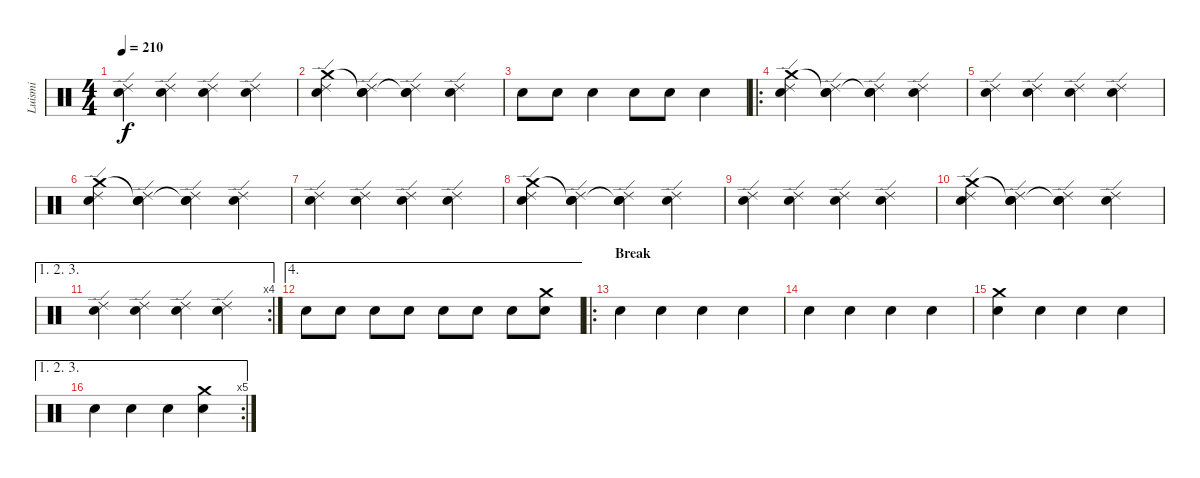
\track ("Luismi" "Luismi") {instrument percussion}
\staff {score}
\articulation defaults
\ts (4 4)
\tempo 210
\clef neutral
\ks c
("Snare (hit) 2" "Ride (edge) 2").4{dy f} ("Electric Snare (hit)" "Ride (edge) 2").4 ("Snare (hit) 2" "Ride (edge) 2").4 ("Electric Snare (hit)" "Ride (edge) 2").4 |
("Snare (hit) 2" "Ride (edge) 2" "Crash medium (hit)").4 ("Electric Snare (hit)" "Ride (edge) 2" "Snare (hit)"{t}).4 ("Snare (hit) 2" "Ride (edge) 2" "Snare (hit)"{t}).4 ("Electric Snare (hit)" "Ride (edge) 2").4 |
"Snare (hit) 2".8 "Snare (hit) 2".8 "Electric Snare (hit)".4 "Snare (hit) 2".8 "Snare (hit) 2".8 "Electric Snare (hit)".4 |
\ro
("Snare (hit) 2" "Ride (edge) 2" "Crash medium (hit)").4 ("Electric Snare (hit)" "Ride (edge) 2" "Snare (hit)"{t}).4 ("Snare (hit) 2" "Ride (edge) 2" "Snare (hit)"{t}).4 ("Electric Snare (hit)" "Ride (edge) 2").4 |
("Snare (hit) 2" "Ride (edge) 2").4 ("Electric Snare (hit)" "Ride (edge) 2").4 ("Snare (hit) 2" "Ride (edge) 2").4 ("Electric Snare (hit)" "Ride (edge) 2").4 |
("Snare (hit) 2" "Ride (edge) 2" "Crash medium (hit)").4 ("Electric Snare (hit)" "Ride (edge) 2" "Snare (hit)"{t}).4 ("Snare (hit) 2" "Ride (edge) 2" "Snare (hit)"{t}).4 ("Electric Snare (hit)" "Ride (edge) 2").4 |
("Snare (hit) 2" "Ride (edge) 2").4 ("Electric Snare (hit)" "Ride (edge) 2").4 ("Snare (hit) 2" "Ride (edge) 2").4 ("Electric Snare (hit)" "Ride (edge) 2").4 |
("Snare (hit) 2" "Ride (edge) 2" "Crash medium (hit)").4 ("Electric Snare (hit)" "Ride (edge) 2" "Snare (hit)"{t}).4 ("Snare (hit) 2" "Ride (edge) 2" "Snare (hit)"{t}).4 ("Electric Snare (hit)" "Ride (edge) 2").4 |
("Snare (hit) 2" "Ride (edge) 2").4 ("Electric Snare (hit)" "Ride (edge) 2").4 ("Snare (hit) 2" "Ride (edge) 2").4 ("Electric Snare (hit)" "Ride (edge) 2").4 |
("Snare (hit) 2" "Ride (edge) 2" "Crash medium (hit)").4 ("Electric Snare (hit)" "Ride (edge) 2" "Snare (hit)"{t}).4 ("Snare (hit) 2" "Ride (edge) 2" "Snare (hit)"{t}).4 ("Electric Snare (hit)" "Ride (edge) 2").4 |
\ae (1 2 3)
\rc 4
("Snare (hit) 2" "Ride (edge) 2").4 ("Electric Snare (hit)" "Ride (edge) 2").4 ("Snare (hit) 2" "Ride (edge) 2").4 ("Electric Snare (hit)" "Ride (edge) 2").4 |
\ae 4 "Snare (hit) 2".8 "Snare (hit) 2".8 "Snare (hit) 2".8 "Snare (hit) 2".8 "Snare (hit) 2".8 "Snare (hit) 2".8 "Snare (hit) 2".8
("Snare (hit) 2" "Crash medium (hit)").8 |
\ro
\section ("" "Break")
"Snare (hit) 2".4 "Electric Snare (hit)".4 "Snare (hit) 2".4 "Electric Snare (hit)".4 |
"Snare (hit) 2".4 "Electric Snare (hit)".4 "Snare (hit) 2".4 "Electric Snare (hit)".4 |
("Snare (hit) 2" "Crash medium (hit)").4 "Electric Snare (hit)".4 "Snare (hit) 2".4 "Electric Snare (hit)".4 |
\ae (1 2 3)
\rc 5 "Snare (hit) 2".4 "Electric Snare (hit)".4 "Snare (hit) 2".4
("Electric Snare (hit)" "Crash medium (hit)").4
